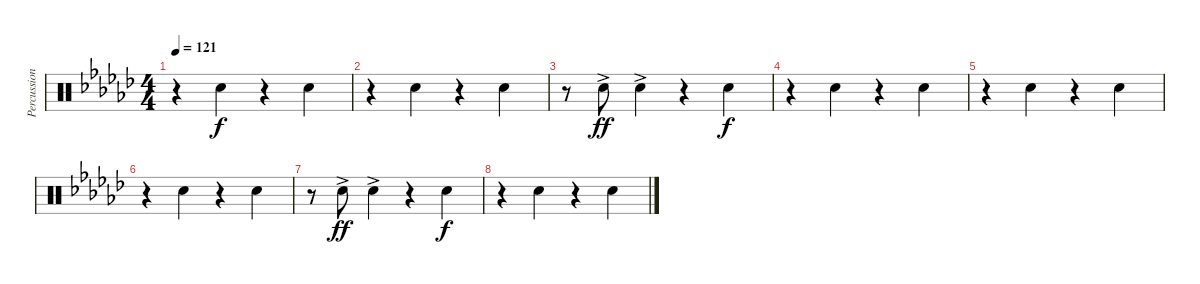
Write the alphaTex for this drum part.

\track ("Percussion" "Percussion") {instrument percussion}
\staff {score}
\articulation defaults
\ts (4 4)
\tempo 121
\clef neutral
\ks ebminor
r.4{dy f volume 3} "Hand Clap (hit)".4 r.4 "Hand Clap (hit)".4 |
r.4 "Hand Clap (hit)".4 r.4 "Hand Clap (hit)".4 |
r.8 "Hand Clap (hit)"{ac}.8{dy ff} "Hand Clap (hit)"{ac}.4 r.4 "Hand Clap (hit)".4{dy f} |
r.4 "Hand Clap (hit)".4 r.4 "Hand Clap (hit)".4 |
r.4{volume 0} "Hand Clap (hit)".4 r.4 "Hand Clap (hit)".4 |
r.4 "Hand Clap (hit)".4 r.4 "Hand Clap (hit)".4 |
r.8 "Hand Clap (hit)"{ac}.8{dy ff} "Hand Clap (hit)"{ac}.4 r.4 "Hand Clap (hit)".4{dy f} |
r.4 "Hand Clap (hit)".4 r.4 "Hand Clap (hit)".4
